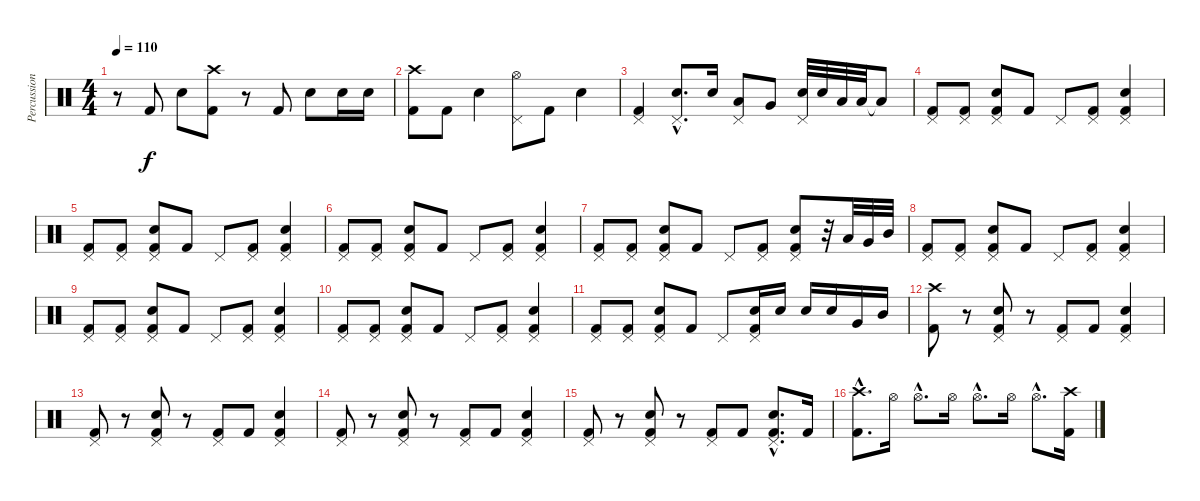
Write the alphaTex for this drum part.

\track ("Percussion" "Percussion") {instrument percussion}
\staff {score}
\articulation defaults
\ts (4 4)
\tempo 110
\clef neutral
\ks c
r.8{dy f} "Kick (hit) 2".8 "Electric Snare (hit)".8 ("Kick (hit) 2" "Crash high (hit)").8 r.8 "Kick (hit) 2".8 "Electric Snare (hit)".8 "Electric Snare (hit)".16 "Electric Snare (hit)".16 |
("Crash high (hit)" "Kick (hit) 2").8 "Kick (hit) 2".8 "Electric Snare (hit)".4 ("Hi-Hat (open)" "Pedal Hi-Hat (hit)").8 "Kick (hit) 2".8 "Electric Snare (hit)".4 |
("Pedal Hi-Hat (hit)" "Kick (hit) 2").4 ("Electric Snare (hit)"{hac} "Pedal Hi-Hat (hit)"{hac}).8{d} "Electric Snare (hit)".16 ("Pedal Hi-Hat (hit)" "Low Floor Tom (hit)").8 "Very Low Tom (hit)".8 ("Electric Snare (hit)" "Pedal Hi-Hat (hit)").32 "Electric Snare (hit)".32 "Low Floor Tom (hit)".32 "Low Floor Tom (hit)".32 "Low Floor Tom (hit)"{t}.8 |
("Pedal Hi-Hat (hit)" "Kick (hit) 2").8 ("Pedal Hi-Hat (hit)" "Kick (hit) 2").8 ("Electric Snare (hit)" "Pedal Hi-Hat (hit)" "Kick (hit) 2").8 "Kick (hit) 2".8 "Pedal Hi-Hat (hit)".8 ("Pedal Hi-Hat (hit)" "Kick (hit) 2").8 ("Electric Snare (hit)" "Pedal Hi-Hat (hit)" "Kick (hit) 2").4 |
("Pedal Hi-Hat (hit)" "Kick (hit) 2").8 ("Pedal Hi-Hat (hit)" "Kick (hit) 2").8 ("Electric Snare (hit)" "Pedal Hi-Hat (hit)" "Kick (hit) 2").8 "Kick (hit) 2".8 "Pedal Hi-Hat (hit)".8 ("Pedal Hi-Hat (hit)" "Kick (hit) 2").8 ("Electric Snare (hit)" "Pedal Hi-Hat (hit)" "Kick (hit) 2").4 |
("Pedal Hi-Hat (hit)" "Kick (hit) 2").8 ("Pedal Hi-Hat (hit)" "Kick (hit) 2").8 ("Electric Snare (hit)" "Pedal Hi-Hat (hit)" "Kick (hit) 2").8 "Kick (hit) 2".8 "Pedal Hi-Hat (hit)".8 ("Pedal Hi-Hat (hit)" "Kick (hit) 2").8 ("Electric Snare (hit)" "Pedal Hi-Hat (hit)" "Kick (hit) 2").4 |
("Pedal Hi-Hat (hit)" "Kick (hit) 2").8 ("Pedal Hi-Hat (hit)" "Kick (hit) 2").8 ("Electric Snare (hit)" "Pedal Hi-Hat (hit)" "Kick (hit) 2").8 "Kick (hit) 2".8 "Pedal Hi-Hat (hit)".8 ("Pedal Hi-Hat (hit)" "Kick (hit) 2").8 ("Electric Snare (hit)" "Pedal Hi-Hat (hit)" "Kick (hit) 2").8 r.32 "Low Tom (hit)".32 "Very Low Tom (hit)".32 "Mid Tom (hit)".32 |
("Pedal Hi-Hat (hit)" "Kick (hit) 2").8 ("Pedal Hi-Hat (hit)" "Kick (hit) 2").8 ("Electric Snare (hit)" "Pedal Hi-Hat (hit)" "Kick (hit) 2").8 "Kick (hit) 2".8 "Pedal Hi-Hat (hit)".8 ("Pedal Hi-Hat (hit)" "Kick (hit) 2").8 ("Electric Snare (hit)" "Pedal Hi-Hat (hit)" "Kick (hit) 2").4 |
("Pedal Hi-Hat (hit)" "Kick (hit) 2").8 ("Pedal Hi-Hat (hit)" "Kick (hit) 2").8 ("Electric Snare (hit)" "Pedal Hi-Hat (hit)" "Kick (hit) 2").8 "Kick (hit) 2".8 "Pedal Hi-Hat (hit)".8 ("Pedal Hi-Hat (hit)" "Kick (hit) 2").8 ("Electric Snare (hit)" "Pedal Hi-Hat (hit)" "Kick (hit) 2").4 |
("Pedal Hi-Hat (hit)" "Kick (hit) 2").8 ("Pedal Hi-Hat (hit)" "Kick (hit) 2").8 ("Electric Snare (hit)" "Pedal Hi-Hat (hit)" "Kick (hit) 2").8 "Kick (hit) 2".8 "Pedal Hi-Hat (hit)".8 ("Pedal Hi-Hat (hit)" "Kick (hit) 2").8 ("Electric Snare (hit)" "Pedal Hi-Hat (hit)" "Kick (hit) 2").4 |
("Pedal Hi-Hat (hit)" "Kick (hit) 2").8 ("Pedal Hi-Hat (hit)" "Kick (hit) 2").8 ("Electric Snare (hit)" "Pedal Hi-Hat (hit)" "Kick (hit) 2").8 "Kick (hit) 2".8 "Pedal Hi-Hat (hit)".8 ("Electric Snare (hit)" "Pedal Hi-Hat (hit)" "Kick (hit) 2").16 "Electric Snare (hit)".16 "Electric Snare (hit)".16 "Electric Snare (hit)".16 "Very Low Tom (hit)".16 "Mid Tom (hit)".16 |
("Crash high (hit)" "Kick (hit) 2").8 r.8 ("Electric Snare (hit)" "Pedal Hi-Hat (hit)" "Kick (hit) 2").8 r.8 ("Pedal Hi-Hat (hit)" "Kick (hit) 2").8 "Kick (hit) 2".8 ("Electric Snare (hit)" "Pedal Hi-Hat (hit)" "Kick (hit) 2").4 |
("Pedal Hi-Hat (hit)" "Kick (hit) 2").8 r.8 ("Electric Snare (hit)" "Pedal Hi-Hat (hit)" "Kick (hit) 2").8 r.8 ("Pedal Hi-Hat (hit)" "Kick (hit) 2").8 "Kick (hit) 2".8 ("Electric Snare (hit)" "Pedal Hi-Hat (hit)" "Kick (hit) 2").4 |
("Pedal Hi-Hat (hit)" "Kick (hit) 2").8 r.8 ("Electric Snare (hit)" "Pedal Hi-Hat (hit)" "Kick (hit) 2").8 r.8 ("Pedal Hi-Hat (hit)" "Kick (hit) 2").8 "Kick (hit) 2".8 ("Electric Snare (hit)" "Pedal Hi-Hat (hit)" "Kick (hit) 2").4 |
("Pedal Hi-Hat (hit)" "Kick (hit) 2").8 r.8 ("Electric Snare (hit)" "Pedal Hi-Hat (hit)" "Kick (hit) 2").8 r.8 ("Pedal Hi-Hat (hit)" "Kick (hit) 2").8 "Kick (hit) 2".8 ("Electric Snare (hit)"{hac} "Pedal Hi-Hat (hit)"{hac} "Kick (hit) 2"{hac}).8{d} "Kick (hit) 2".16 |
("Crash high (hit)"{hac} "Kick (hit) 2"{hac}).8{d} "Hi-Hat (open)".16 "Hi-Hat (open)"{hac}.8{d} "Hi-Hat (open)".16 "Hi-Hat (open)"{hac}.8{d} "Hi-Hat (open)".16 "Hi-Hat (open)"{hac}.8{d} ("Crash high (hit)" "Kick (hit) 2").16
